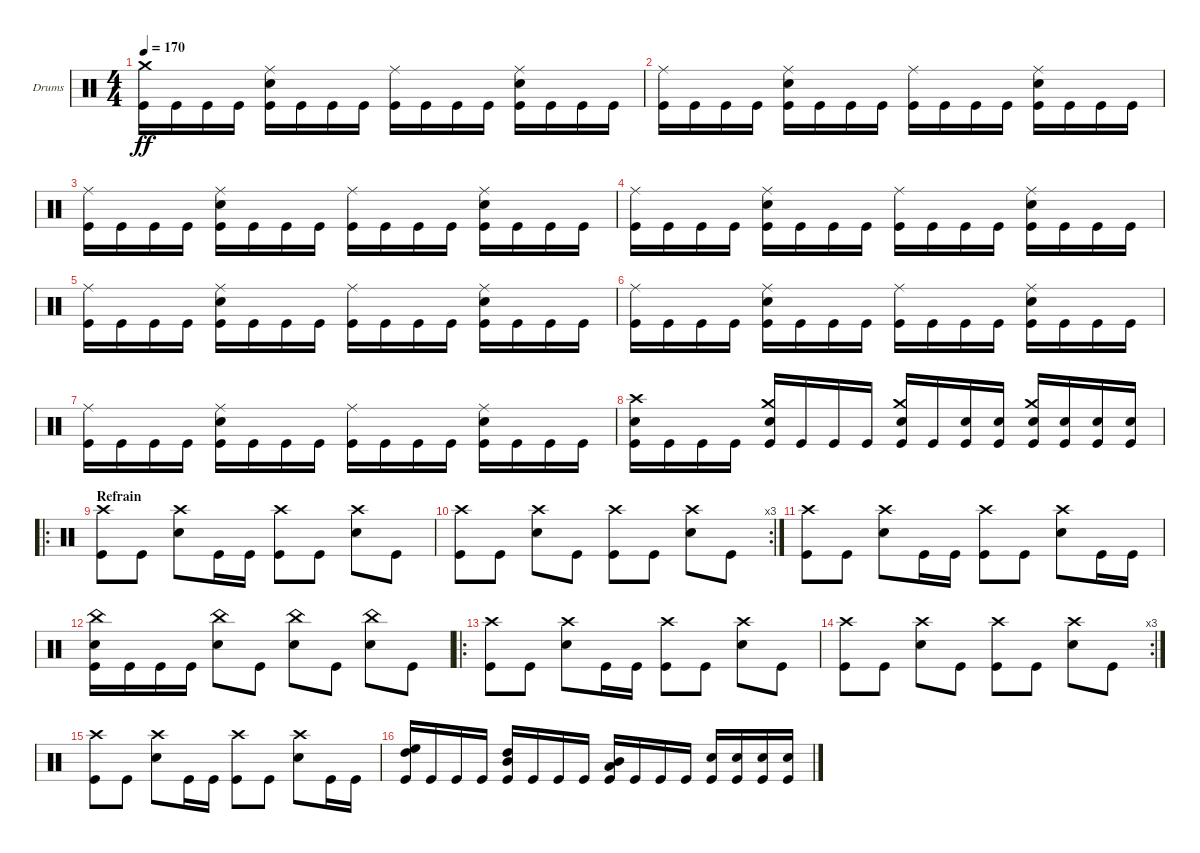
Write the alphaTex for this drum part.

\defaultSystemsLayout 4
\bracketExtendMode groupsimilarinstruments
\firstSystemTrackNameOrientation horizontal
\otherSystemsTrackNameOrientation horizontal
\track ("Inferno" "Drums") {instrument percussion}
\staff {score}
\articulation defaults
\ts (4 4)
\tempo 170
\clef neutral
\ks c
("Kick (hit)" "Crash medium (hit)").16{dy ff} "Kick (hit)".16 "Kick (hit)".16 "Kick (hit)".16 ("Kick (hit)" "Snare (hit) 2" "Ride (middle)").16 "Kick (hit)".16 "Kick (hit)".16 "Kick (hit)".16 ("Kick (hit)" "Ride (middle)").16 "Kick (hit)".16 "Kick (hit)".16 "Kick (hit)".16 ("Kick (hit)" "Ride (middle)" "Snare (hit) 2").16 "Kick (hit)".16 "Kick (hit)".16 "Kick (hit)".16 |
("Kick (hit)" "Ride (middle)").16 "Kick (hit)".16 "Kick (hit)".16 "Kick (hit)".16 ("Kick (hit)" "Snare (hit) 2" "Ride (middle)").16 "Kick (hit)".16 "Kick (hit)".16 "Kick (hit)".16 ("Kick (hit)" "Ride (middle)").16 "Kick (hit)".16 "Kick (hit)".16 "Kick (hit)".16 ("Kick (hit)" "Ride (middle)" "Snare (hit) 2").16 "Kick (hit)".16 "Kick (hit)".16 "Kick (hit)".16 |
("Kick (hit)" "Ride (middle)").16 "Kick (hit)".16 "Kick (hit)".16 "Kick (hit)".16 ("Kick (hit)" "Ride (middle)" "Snare (hit) 2").16 "Kick (hit)".16 "Kick (hit)".16 "Kick (hit)".16 ("Kick (hit)" "Ride (middle)").16 "Kick (hit)".16 "Kick (hit)".16 "Kick (hit)".16 ("Kick (hit)" "Ride (middle)" "Snare (hit) 2").16 "Kick (hit)".16 "Kick (hit)".16 "Kick (hit)".16 |
("Kick (hit)" "Ride (middle)").16 "Kick (hit)".16 "Kick (hit)".16 "Kick (hit)".16 ("Kick (hit)" "Snare (hit) 2" "Ride (middle)").16 "Kick (hit)".16 "Kick (hit)".16 "Kick (hit)".16 ("Kick (hit)" "Ride (middle)").16 "Kick (hit)".16 "Kick (hit)".16 "Kick (hit)".16 ("Kick (hit)" "Snare (hit) 2" "Ride (middle)").16 "Kick (hit)".16 "Kick (hit)".16 "Kick (hit)".16 |
("Kick (hit)" "Ride (middle)").16 "Kick (hit)".16 "Kick (hit)".16 "Kick (hit)".16 ("Kick (hit)" "Ride (middle)" "Snare (hit) 2").16 "Kick (hit)".16 "Kick (hit)".16 "Kick (hit)".16 ("Kick (hit)" "Ride (middle)").16 "Kick (hit)".16 "Kick (hit)".16 "Kick (hit)".16 ("Kick (hit)" "Ride (middle)" "Snare (hit) 2").16 "Kick (hit)".16 "Kick (hit)".16 "Kick (hit)".16 |
("Kick (hit)" "Ride (middle)").16 "Kick (hit)".16 "Kick (hit)".16 "Kick (hit)".16 ("Kick (hit)" "Ride (middle)" "Snare (hit) 2").16 "Kick (hit)".16 "Kick (hit)".16 "Kick (hit)".16 ("Kick (hit)" "Ride (middle)").16 "Kick (hit)".16 "Kick (hit)".16 "Kick (hit)".16 ("Kick (hit)" "Ride (middle)" "Snare (hit) 2").16 "Kick (hit)".16 "Kick (hit)".16 "Kick (hit)".16 |
("Kick (hit)" "Ride (middle)").16 "Kick (hit)".16 "Kick (hit)".16 "Kick (hit)".16 ("Kick (hit)" "Snare (hit) 2" "Ride (middle)").16 "Kick (hit)".16 "Kick (hit)".16 "Kick (hit)".16 ("Kick (hit)" "Ride (middle)").16 "Kick (hit)".16 "Kick (hit)".16 "Kick (hit)".16 ("Kick (hit)" "Ride (middle)" "Snare (hit) 2").16 "Kick (hit)".16 "Kick (hit)".16 "Kick (hit)".16 |
("Kick (hit)" "Crash high (hit)" "Snare (hit) 2").16 "Kick (hit)".16 "Kick (hit)".16 "Kick (hit)".16 ("Kick (hit)" "Crash medium (hit)" "Snare (hit) 2").16 "Kick (hit)".16 "Kick (hit)".16 "Kick (hit)".16 ("Kick (hit)" "Crash medium (hit)" "Snare (hit) 2").16 "Kick (hit)".16 ("Kick (hit)" "Snare (hit) 2").16 ("Kick (hit)" "Snare (hit) 2").16 ("Kick (hit)" "Crash medium (hit)" "Snare (hit) 2").16 ("Kick (hit)" "Snare (hit) 2").16 ("Kick (hit)" "Snare (hit) 2").16 ("Kick (hit)" "Snare (hit) 2").16 |
\ro
\section ("" "Refrain")
("Kick (hit)" "Crash high (hit)").8 "Kick (hit)".8 ("Snare (hit) 2" "Crash high (hit)").8 "Kick (hit)".16 "Kick (hit)".16 ("Kick (hit)" "Crash high (hit)").8 "Kick (hit)".8 ("Snare (hit) 2" "Crash high (hit)").8 "Kick (hit)".8 |
\rc 3
("Kick (hit)" "Crash high (hit)").8 "Kick (hit)".8 ("Snare (hit) 2" "Crash high (hit)").8 "Kick (hit)".8 ("Kick (hit)" "Crash high (hit)").8 "Kick (hit)".8 ("Snare (hit) 2" "Crash high (hit)").8 "Kick (hit)".8 |
("Kick (hit)" "Crash high (hit)").8 "Kick (hit)".8 ("Snare (hit) 2" "Crash high (hit)").8 "Kick (hit)".16 "Kick (hit)".16 ("Kick (hit)" "Crash high (hit)").8 "Kick (hit)".8 ("Snare (hit) 2" "Crash high (hit)").8 "Kick (hit)".16 "Kick (hit)".16 |
("Snare (hit) 2" "Kick (hit)" "China (hit)").16 "Kick (hit)".16 "Kick (hit)".16 "Kick (hit)".16 ("Snare (hit) 2" "China (hit)").8 "Kick (hit)".8 ("Snare (hit) 2" "China (hit)").8 "Kick (hit)".8 ("Snare (hit) 2" "China (hit)").8 "Kick (hit)".8 |
\ro
("Kick (hit)" "Crash high (hit)").8 "Kick (hit)".8 ("Snare (hit) 2" "Crash high (hit)").8 "Kick (hit)".16 "Kick (hit)".16 ("Kick (hit)" "Crash high (hit)").8 "Kick (hit)".8 ("Snare (hit) 2" "Crash high (hit)").8 "Kick (hit)".8 |
\rc 3
("Kick (hit)" "Crash high (hit)").8 "Kick (hit)".8 ("Snare (hit) 2" "Crash high (hit)").8 "Kick (hit)".8 ("Kick (hit)" "Crash high (hit)").8 "Kick (hit)".8 ("Snare (hit) 2" "Crash high (hit)").8 "Kick (hit)".8 |
("Kick (hit)" "Crash high (hit)").8 "Kick (hit)".8 ("Snare (hit) 2" "Crash high (hit)").8 "Kick (hit)".16 "Kick (hit)".16 ("Kick (hit)" "Crash high (hit)").8 "Kick (hit)".8 ("Snare (hit) 2" "Crash high (hit)").8 "Kick (hit)".16 "Kick (hit)".16 |
("Kick (hit)" "High Tom (hit)" "High Floor Tom (hit)").16 "Kick (hit)".16 "Kick (hit)".16 "Kick (hit)".16 ("Kick (hit)" "High Tom (hit)" "Mid Tom (hit)").16 "Kick (hit)".16 "Kick (hit)".16 "Kick (hit)".16 ("Kick (hit)" "Mid Tom (hit)" "Low Tom (hit)").16 "Kick (hit)".16 "Kick (hit)".16 "Kick (hit)".16 ("Kick (hit)" "Snare (hit) 2").16 ("Kick (hit)" "Snare (hit) 2").16 ("Kick (hit)" "Snare (hit) 2").16 ("Kick (hit)" "Snare (hit) 2").16
